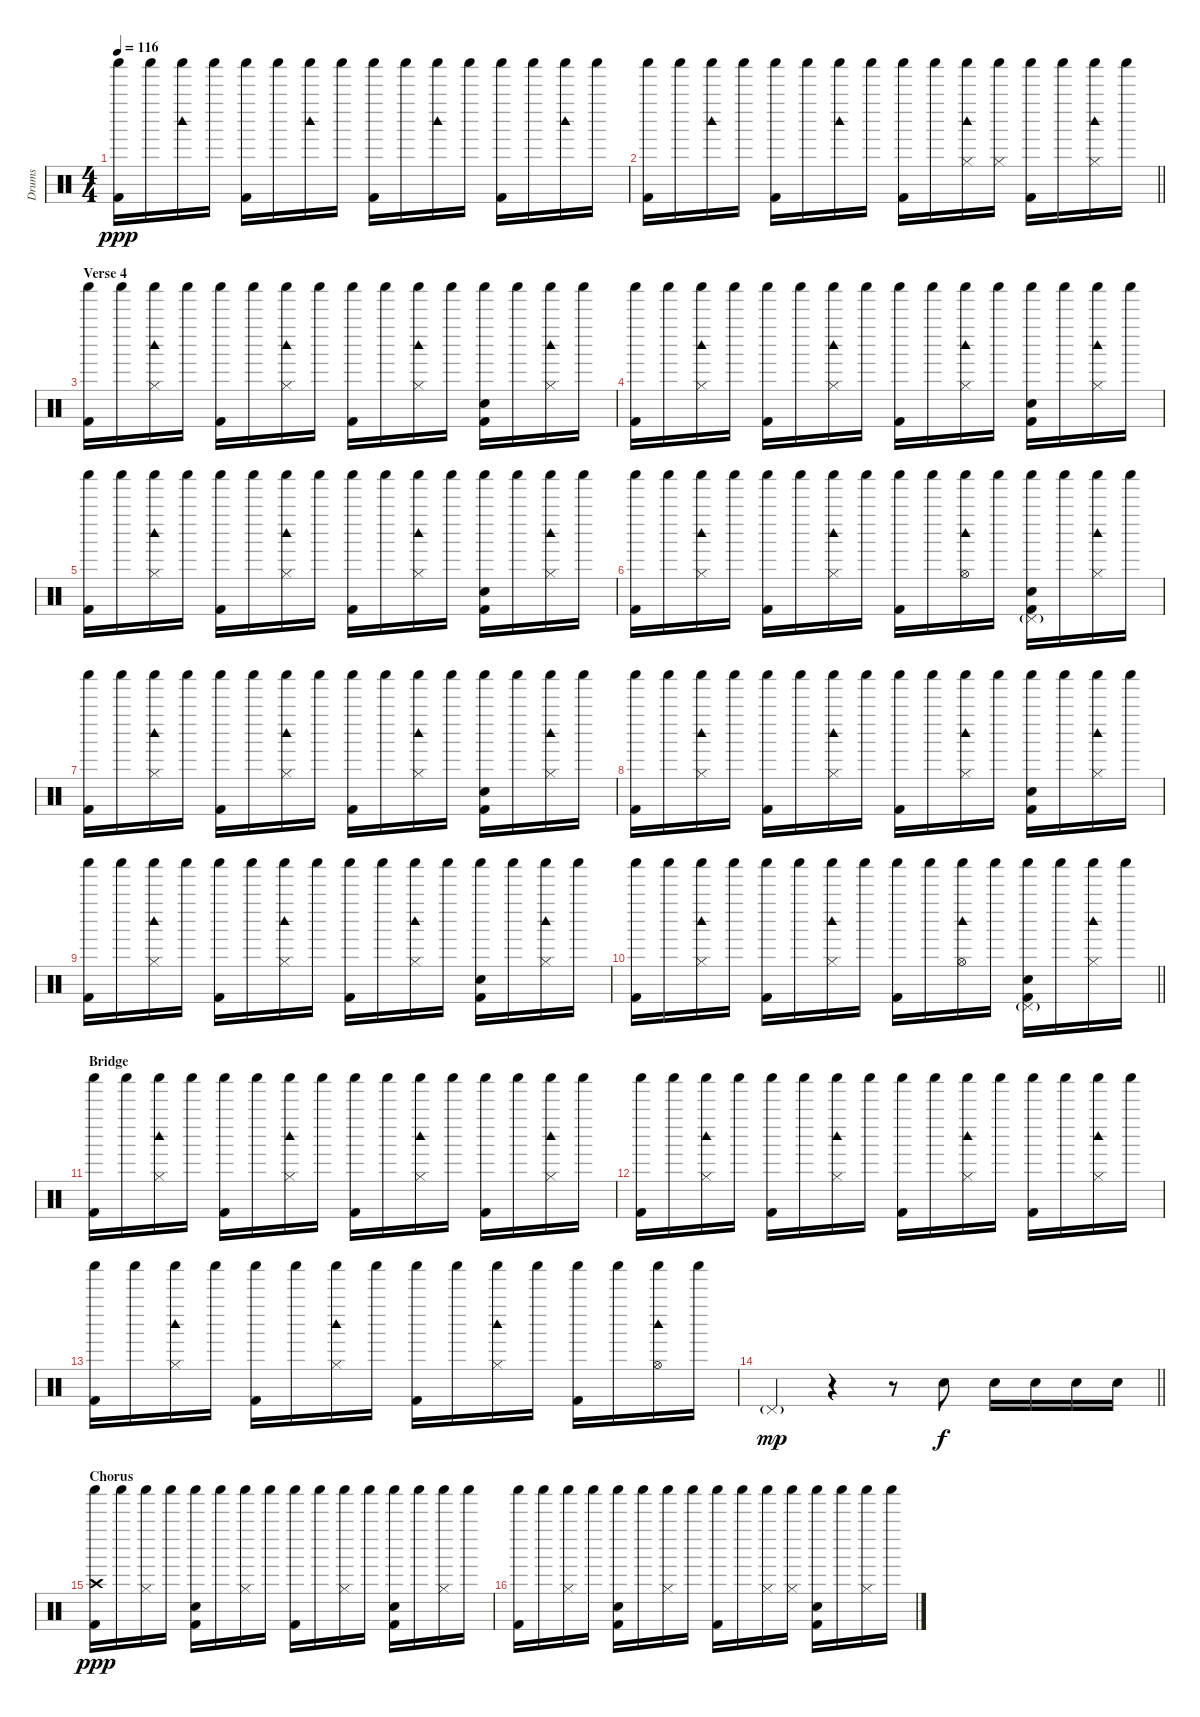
\track ("Drums" "Drums") {mute instrument percussion}
\staff {score}
\articulation defaults
\ts (4 4)
\tempo 116
\clef neutral
\ks c
("Shaker (hit)" "Kick (hit) 2").16{dy ppp} "Shaker (hit)".16 ("Woodblock high (hit)" "Shaker (hit)").16 "Shaker (hit)".16 ("Shaker (hit)" "Kick (hit) 2").16 "Shaker (hit)".16 ("Woodblock high (hit)" "Shaker (hit)").16 "Shaker (hit)".16 ("Shaker (hit)" "Kick (hit) 2").16 "Shaker (hit)".16 ("Woodblock high (hit)" "Shaker (hit)").16 "Shaker (hit)".16 ("Shaker (hit)" "Kick (hit) 2").16 "Shaker (hit)".16 ("Woodblock high (hit)" "Shaker (hit)").16 "Shaker (hit)".16 |
\barLineRight lightlight
("Shaker (hit)" "Kick (hit) 2").16 "Shaker (hit)".16 ("Woodblock high (hit)" "Shaker (hit)").16 "Shaker (hit)".16 ("Shaker (hit)" "Kick (hit) 2").16 "Shaker (hit)".16 ("Woodblock high (hit)" "Shaker (hit)").16 "Shaker (hit)".16 ("Shaker (hit)" "Kick (hit) 2").16 "Shaker (hit)".16 ("Hi-Hat (closed)" "Woodblock high (hit)" "Shaker (hit)").16 ("Hi-Hat (closed)" "Shaker (hit)").16 ("Shaker (hit)" "Kick (hit) 2").16 "Shaker (hit)".16 ("Hi-Hat (closed)" "Woodblock high (hit)" "Shaker (hit)").16 "Shaker (hit)".16 |
\section ("" "Verse 4")
("Shaker (hit)" "Kick (hit) 2").16 "Shaker (hit)".16 ("Hi-Hat (closed)" "Woodblock high (hit)" "Shaker (hit)").16 "Shaker (hit)".16 ("Shaker (hit)" "Kick (hit) 2").16 "Shaker (hit)".16 ("Hi-Hat (closed)" "Woodblock high (hit)" "Shaker (hit)").16 "Shaker (hit)".16 ("Shaker (hit)" "Kick (hit) 2").16 "Shaker (hit)".16 ("Hi-Hat (closed)" "Woodblock high (hit)" "Shaker (hit)").16 "Shaker (hit)".16 ("Shaker (hit)" "Snare (hit) 2" "Kick (hit) 2").16 "Shaker (hit)".16 ("Hi-Hat (closed)" "Woodblock high (hit)" "Shaker (hit)").16 "Shaker (hit)".16 |
("Shaker (hit)" "Kick (hit) 2").16 "Shaker (hit)".16 ("Hi-Hat (closed)" "Woodblock high (hit)" "Shaker (hit)").16 "Shaker (hit)".16 ("Shaker (hit)" "Kick (hit) 2").16 "Shaker (hit)".16 ("Hi-Hat (closed)" "Woodblock high (hit)" "Shaker (hit)").16 "Shaker (hit)".16 ("Shaker (hit)" "Kick (hit) 2").16 "Shaker (hit)".16 ("Hi-Hat (closed)" "Woodblock high (hit)" "Shaker (hit)").16 "Shaker (hit)".16 ("Shaker (hit)" "Snare (hit) 2" "Kick (hit) 2").16 "Shaker (hit)".16 ("Hi-Hat (closed)" "Woodblock high (hit)" "Shaker (hit)").16 "Shaker (hit)".16 |
("Shaker (hit)" "Kick (hit) 2").16 "Shaker (hit)".16 ("Hi-Hat (closed)" "Woodblock high (hit)" "Shaker (hit)").16 "Shaker (hit)".16 ("Shaker (hit)" "Kick (hit) 2").16 "Shaker (hit)".16 ("Hi-Hat (closed)" "Woodblock high (hit)" "Shaker (hit)").16 "Shaker (hit)".16 ("Shaker (hit)" "Kick (hit) 2").16 "Shaker (hit)".16 ("Hi-Hat (closed)" "Woodblock high (hit)" "Shaker (hit)").16 "Shaker (hit)".16 ("Shaker (hit)" "Snare (hit) 2" "Kick (hit) 2").16 "Shaker (hit)".16 ("Hi-Hat (closed)" "Woodblock high (hit)" "Shaker (hit)").16 "Shaker (hit)".16 |
("Shaker (hit)" "Kick (hit) 2").16 "Shaker (hit)".16 ("Hi-Hat (closed)" "Woodblock high (hit)" "Shaker (hit)").16 "Shaker (hit)".16 ("Shaker (hit)" "Kick (hit) 2").16 "Shaker (hit)".16 ("Hi-Hat (closed)" "Woodblock high (hit)" "Shaker (hit)").16 "Shaker (hit)".16 ("Shaker (hit)" "Kick (hit) 2").16 "Shaker (hit)".16 ("Hi-Hat (open)" "Woodblock high (hit)" "Shaker (hit)").16 "Shaker (hit)".16 ("Pedal Hi-Hat (hit)"{g} "Shaker (hit)" "Snare (hit) 2" "Kick (hit) 2").16 "Shaker (hit)".16 ("Hi-Hat (closed)" "Woodblock high (hit)" "Shaker (hit)").16 "Shaker (hit)".16 |
("Shaker (hit)" "Kick (hit) 2").16 "Shaker (hit)".16 ("Hi-Hat (closed)" "Woodblock high (hit)" "Shaker (hit)").16 "Shaker (hit)".16 ("Shaker (hit)" "Kick (hit) 2").16 "Shaker (hit)".16 ("Hi-Hat (closed)" "Woodblock high (hit)" "Shaker (hit)").16 "Shaker (hit)".16 ("Shaker (hit)" "Kick (hit) 2").16 "Shaker (hit)".16 ("Hi-Hat (closed)" "Woodblock high (hit)" "Shaker (hit)").16 "Shaker (hit)".16 ("Shaker (hit)" "Snare (hit) 2" "Kick (hit) 2").16 "Shaker (hit)".16 ("Hi-Hat (closed)" "Woodblock high (hit)" "Shaker (hit)").16 "Shaker (hit)".16 |
("Shaker (hit)" "Kick (hit) 2").16 "Shaker (hit)".16 ("Hi-Hat (closed)" "Woodblock high (hit)" "Shaker (hit)").16 "Shaker (hit)".16 ("Shaker (hit)" "Kick (hit) 2").16 "Shaker (hit)".16 ("Hi-Hat (closed)" "Woodblock high (hit)" "Shaker (hit)").16 "Shaker (hit)".16 ("Shaker (hit)" "Kick (hit) 2").16 "Shaker (hit)".16 ("Hi-Hat (closed)" "Woodblock high (hit)" "Shaker (hit)").16 "Shaker (hit)".16 ("Shaker (hit)" "Snare (hit) 2" "Kick (hit) 2").16 "Shaker (hit)".16 ("Hi-Hat (closed)" "Woodblock high (hit)" "Shaker (hit)").16 "Shaker (hit)".16 |
("Shaker (hit)" "Kick (hit) 2").16 "Shaker (hit)".16 ("Hi-Hat (closed)" "Woodblock high (hit)" "Shaker (hit)").16 "Shaker (hit)".16 ("Shaker (hit)" "Kick (hit) 2").16 "Shaker (hit)".16 ("Hi-Hat (closed)" "Woodblock high (hit)" "Shaker (hit)").16 "Shaker (hit)".16 ("Shaker (hit)" "Kick (hit) 2").16 "Shaker (hit)".16 ("Hi-Hat (closed)" "Woodblock high (hit)" "Shaker (hit)").16 "Shaker (hit)".16 ("Shaker (hit)" "Snare (hit) 2" "Kick (hit) 2").16 "Shaker (hit)".16 ("Hi-Hat (closed)" "Woodblock high (hit)" "Shaker (hit)").16 "Shaker (hit)".16 |
\barLineRight lightlight
("Shaker (hit)" "Kick (hit) 2").16 "Shaker (hit)".16 ("Hi-Hat (closed)" "Woodblock high (hit)" "Shaker (hit)").16 "Shaker (hit)".16 ("Shaker (hit)" "Kick (hit) 2").16 "Shaker (hit)".16 ("Hi-Hat (closed)" "Woodblock high (hit)" "Shaker (hit)").16 "Shaker (hit)".16 ("Shaker (hit)" "Kick (hit) 2").16 "Shaker (hit)".16 ("Hi-Hat (open)" "Woodblock high (hit)" "Shaker (hit)").16 "Shaker (hit)".16 ("Pedal Hi-Hat (hit)"{g} "Shaker (hit)" "Snare (hit) 2" "Kick (hit) 2").16 "Shaker (hit)".16 ("Hi-Hat (closed)" "Woodblock high (hit)" "Shaker (hit)").16 "Shaker (hit)".16 |
\section ("" "Bridge")
("Shaker (hit)" "Kick (hit) 2").16 "Shaker (hit)".16 ("Hi-Hat (closed)" "Woodblock high (hit)" "Shaker (hit)").16 "Shaker (hit)".16 ("Shaker (hit)" "Kick (hit) 2").16 "Shaker (hit)".16 ("Hi-Hat (closed)" "Woodblock high (hit)" "Shaker (hit)").16 "Shaker (hit)".16 ("Shaker (hit)" "Kick (hit) 2").16 "Shaker (hit)".16 ("Hi-Hat (closed)" "Woodblock high (hit)" "Shaker (hit)").16 "Shaker (hit)".16 ("Shaker (hit)" "Kick (hit) 2").16 "Shaker (hit)".16 ("Hi-Hat (closed)" "Woodblock high (hit)" "Shaker (hit)").16 "Shaker (hit)".16 |
("Shaker (hit)" "Kick (hit) 2").16 "Shaker (hit)".16 ("Hi-Hat (closed)" "Woodblock high (hit)" "Shaker (hit)").16 "Shaker (hit)".16 ("Shaker (hit)" "Kick (hit) 2").16 "Shaker (hit)".16 ("Hi-Hat (closed)" "Woodblock high (hit)" "Shaker (hit)").16 "Shaker (hit)".16 ("Shaker (hit)" "Kick (hit) 2").16 "Shaker (hit)".16 ("Hi-Hat (closed)" "Woodblock high (hit)" "Shaker (hit)").16 "Shaker (hit)".16 ("Shaker (hit)" "Kick (hit) 2").16 "Shaker (hit)".16 ("Hi-Hat (closed)" "Woodblock high (hit)" "Shaker (hit)").16 "Shaker (hit)".16 |
("Shaker (hit)" "Kick (hit) 2").16 "Shaker (hit)".16 ("Hi-Hat (closed)" "Woodblock high (hit)" "Shaker (hit)").16 "Shaker (hit)".16 ("Shaker (hit)" "Kick (hit) 2").16 "Shaker (hit)".16 ("Hi-Hat (closed)" "Woodblock high (hit)" "Shaker (hit)").16 "Shaker (hit)".16 ("Shaker (hit)" "Kick (hit) 2").16 "Shaker (hit)".16 ("Hi-Hat (closed)" "Woodblock high (hit)" "Shaker (hit)").16 "Shaker (hit)".16 ("Shaker (hit)" "Kick (hit) 2").16 "Shaker (hit)".16 ("Hi-Hat (open)" "Woodblock high (hit)" "Shaker (hit)").16 "Shaker (hit)".16 |
\barLineRight lightlight "Pedal Hi-Hat (hit)"{g}.4{dy mp}
r.4 r.8 "Snare (hit) 2".8{dy f} "Snare (hit) 2".16 "Snare (hit) 2".16 "Snare (hit) 2".16 "Snare (hit) 2".16 |
\section ("" "Chorus")
("Crash high (hit)" "Shaker (hit)" "Kick (hit) 2").16{dy ppp} "Shaker (hit)".16 ("Hi-Hat (closed)" "Shaker (hit)").16 "Shaker (hit)".16 ("Shaker (hit)" "Snare (hit) 2" "Kick (hit) 2").16 "Shaker (hit)".16 ("Hi-Hat (closed)" "Shaker (hit)").16 "Shaker (hit)".16 ("Shaker (hit)" "Kick (hit) 2").16 "Shaker (hit)".16 ("Hi-Hat (closed)" "Shaker (hit)").16 "Shaker (hit)".16 ("Shaker (hit)" "Snare (hit) 2" "Kick (hit) 2").16 "Shaker (hit)".16 ("Hi-Hat (closed)" "Shaker (hit)").16 "Shaker (hit)".16 |
("Shaker (hit)" "Kick (hit) 2").16 "Shaker (hit)".16 ("Hi-Hat (closed)" "Shaker (hit)").16 "Shaker (hit)".16 ("Shaker (hit)" "Snare (hit) 2" "Kick (hit) 2").16 "Shaker (hit)".16 ("Hi-Hat (closed)" "Shaker (hit)").16 "Shaker (hit)".16 ("Shaker (hit)" "Kick (hit) 2").16 "Shaker (hit)".16 ("Hi-Hat (closed)" "Shaker (hit)").16 ("Hi-Hat (closed)" "Shaker (hit)").16 ("Shaker (hit)" "Snare (hit) 2" "Kick (hit) 2").16 "Shaker (hit)".16 ("Hi-Hat (closed)" "Shaker (hit)").16 "Shaker (hit)".16
